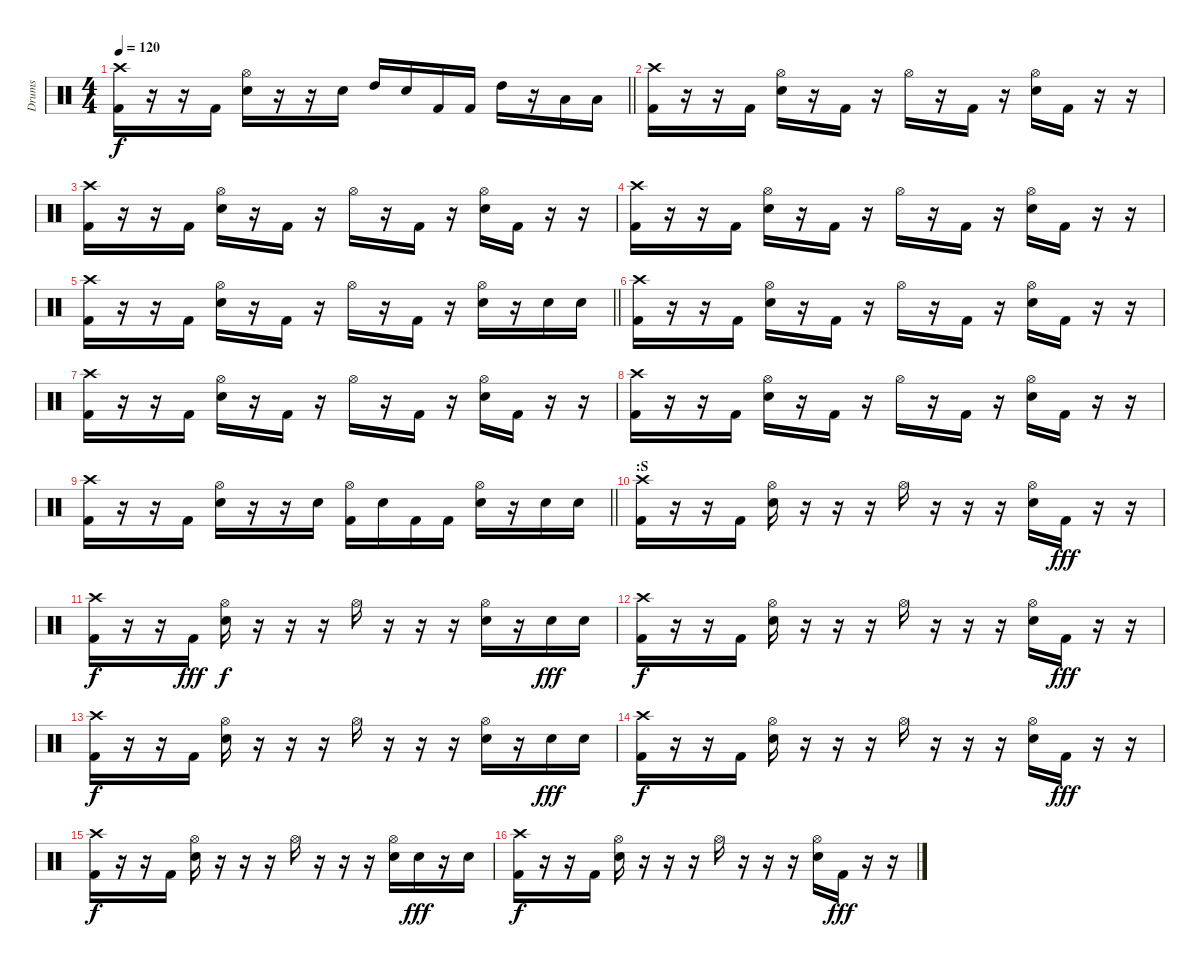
\track ("Drums" "Drums") {instrument percussion}
\staff {score}
\articulation defaults
\ts (4 4)
\tempo 120
\clef neutral
\barLineRight lightlight
\ks c
("Crash high (hit)" "Kick (hit) 2").16{dy f} r.16 r.16 "Kick (hit) 2".16 ("Hi-Hat (open)" "Snare (hit) 2").16 r.16 r.16 "Snare (hit) 2".16 "High Tom (hit)".16 "Snare (hit) 2".16 "Kick (hit) 2".16 "Kick (hit) 2".16 "High Tom (hit)".16 r.16 "Low Tom (hit)".16 "Low Tom (hit)".16 |
("Crash high (hit)" "Kick (hit) 2").16 r.16 r.16 "Kick (hit) 2".16 ("Hi-Hat (open)" "Snare (hit) 2").16 r.16 "Kick (hit) 2".16 r.16 "Hi-Hat (open)".16 r.16 "Kick (hit) 2".16 r.16 ("Hi-Hat (open)" "Snare (hit) 2").16 "Kick (hit) 2".16 r.16 r.16 |
("Crash high (hit)" "Kick (hit) 2").16 r.16 r.16 "Kick (hit) 2".16 ("Hi-Hat (open)" "Snare (hit) 2").16 r.16 "Kick (hit) 2".16 r.16 "Hi-Hat (open)".16 r.16 "Kick (hit) 2".16 r.16 ("Hi-Hat (open)" "Snare (hit) 2").16 "Kick (hit) 2".16 r.16 r.16 |
("Crash high (hit)" "Kick (hit) 2").16 r.16 r.16 "Kick (hit) 2".16 ("Hi-Hat (open)" "Snare (hit) 2").16 r.16 "Kick (hit) 2".16 r.16 "Hi-Hat (open)".16 r.16 "Kick (hit) 2".16 r.16 ("Hi-Hat (open)" "Snare (hit) 2").16 "Kick (hit) 2".16 r.16 r.16 |
\barLineRight lightlight
("Crash high (hit)" "Kick (hit) 2").16 r.16 r.16 "Kick (hit) 2".16 ("Hi-Hat (open)" "Snare (hit) 2").16 r.16 "Kick (hit) 2".16 r.16 "Hi-Hat (open)".16 r.16 "Kick (hit) 2".16 r.16 ("Hi-Hat (open)" "Snare (hit) 2").16 r.16 "Snare (hit) 2".16 "Snare (hit) 2".16 |
("Crash high (hit)" "Kick (hit) 2").16 r.16 r.16 "Kick (hit) 2".16 ("Hi-Hat (open)" "Snare (hit) 2").16 r.16 "Kick (hit) 2".16 r.16 "Hi-Hat (open)".16 r.16 "Kick (hit) 2".16 r.16 ("Hi-Hat (open)" "Snare (hit) 2").16 "Kick (hit) 2".16 r.16 r.16 |
("Crash high (hit)" "Kick (hit) 2").16 r.16 r.16 "Kick (hit) 2".16 ("Hi-Hat (open)" "Snare (hit) 2").16 r.16 "Kick (hit) 2".16 r.16 "Hi-Hat (open)".16 r.16 "Kick (hit) 2".16 r.16 ("Hi-Hat (open)" "Snare (hit) 2").16 "Kick (hit) 2".16 r.16 r.16 |
("Crash high (hit)" "Kick (hit) 2").16 r.16 r.16 "Kick (hit) 2".16 ("Hi-Hat (open)" "Snare (hit) 2").16 r.16 "Kick (hit) 2".16 r.16 "Hi-Hat (open)".16 r.16 "Kick (hit) 2".16 r.16 ("Hi-Hat (open)" "Snare (hit) 2").16 "Kick (hit) 2".16 r.16 r.16 |
\barLineRight lightlight
("Crash high (hit)" "Kick (hit) 2").16 r.16 r.16 "Kick (hit) 2".16 ("Hi-Hat (open)" "Snare (hit) 2").16 r.16 r.16 "Snare (hit) 2".16 ("Hi-Hat (open)" "Kick (hit) 2").16 "Snare (hit) 2".16 "Kick (hit) 2".16 "Kick (hit) 2".16 ("Hi-Hat (open)" "Snare (hit) 2").16 r.16 "Snare (hit) 2".16 "Snare (hit) 2".16 |
\section ("" ":S")
("Crash high (hit)" "Kick (hit) 2").16 r.16 r.16 "Kick (hit) 2".16 ("Hi-Hat (open)" "Snare (hit) 2").16 r.16 r.16 r.16 "Hi-Hat (open)".16 r.16 r.16 r.16 ("Hi-Hat (open)" "Snare (hit) 2").16 "Kick (hit) 2".16{dy fff} r.16 r.16 |
("Crash high (hit)" "Kick (hit) 2").16{dy f} r.16 r.16 "Kick (hit) 2".16{dy fff} ("Hi-Hat (open)" "Snare (hit) 2").16{dy f} r.16 r.16 r.16 "Hi-Hat (open)".16 r.16 r.16 r.16 ("Hi-Hat (open)" "Snare (hit) 2").16 r.16 "Snare (hit) 2".16{dy fff} "Snare (hit) 2".16 |
("Crash high (hit)" "Kick (hit) 2").16{dy f} r.16 r.16 "Kick (hit) 2".16 ("Hi-Hat (open)" "Snare (hit) 2").16 r.16 r.16 r.16 "Hi-Hat (open)".16 r.16 r.16 r.16 ("Hi-Hat (open)" "Snare (hit) 2").16 "Kick (hit) 2".16{dy fff} r.16 r.16 |
("Crash high (hit)" "Kick (hit) 2").16{dy f} r.16 r.16 "Kick (hit) 2".16 ("Hi-Hat (open)" "Snare (hit) 2").16 r.16 r.16 r.16 "Hi-Hat (open)".16 r.16 r.16 r.16 ("Hi-Hat (open)" "Snare (hit) 2").16 r.16 "Snare (hit) 2".16{dy fff} "Snare (hit) 2".16 |
("Crash high (hit)" "Kick (hit) 2").16{dy f} r.16 r.16 "Kick (hit) 2".16 ("Hi-Hat (open)" "Snare (hit) 2").16 r.16 r.16 r.16 "Hi-Hat (open)".16 r.16 r.16 r.16 ("Hi-Hat (open)" "Snare (hit) 2").16 "Kick (hit) 2".16{dy fff} r.16 r.16 |
("Crash high (hit)" "Kick (hit) 2").16{dy f} r.16 r.16 "Kick (hit) 2".16 ("Hi-Hat (open)" "Snare (hit) 2").16 r.16 r.16 r.16 "Hi-Hat (open)".16 r.16 r.16 r.16 ("Hi-Hat (open)" "Snare (hit) 2").16 "Snare (hit) 2".16{dy fff} r.16 "Snare (hit) 2".16 |
("Crash high (hit)" "Kick (hit) 2").16{dy f} r.16 r.16 "Kick (hit) 2".16 ("Hi-Hat (open)" "Snare (hit) 2").16 r.16 r.16 r.16 "Hi-Hat (open)".16 r.16 r.16 r.16 ("Hi-Hat (open)" "Snare (hit) 2").16 "Kick (hit) 2".16{dy fff} r.16 r.16
